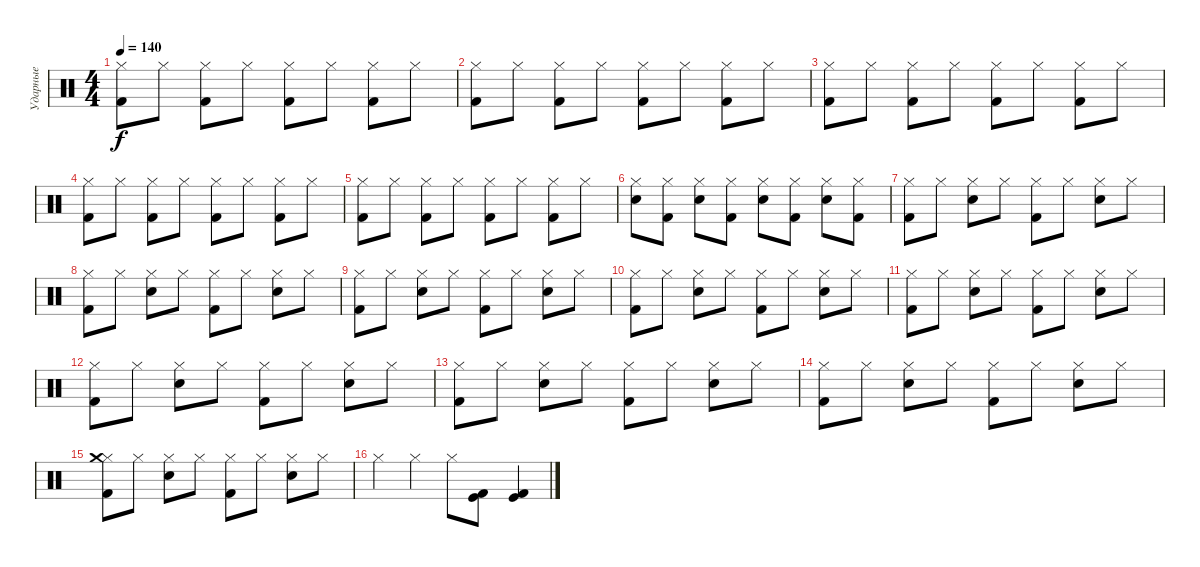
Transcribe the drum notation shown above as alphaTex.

\track ("Ударные" "Ударные") {instrument percussion}
\staff {score}
\articulation defaults
\ts (4 4)
\tempo 140
\clef neutral
\ks c
("Hi-Hat (closed)" "Kick (hit) 2").8{dy f} "Hi-Hat (closed)".8 ("Hi-Hat (closed)" "Kick (hit) 2").8 "Hi-Hat (closed)".8 ("Hi-Hat (closed)" "Kick (hit) 2").8 "Hi-Hat (closed)".8 ("Hi-Hat (closed)" "Kick (hit) 2").8 "Hi-Hat (closed)".8 |
("Hi-Hat (closed)" "Kick (hit) 2").8 "Hi-Hat (closed)".8 ("Hi-Hat (closed)" "Kick (hit) 2").8 "Hi-Hat (closed)".8 ("Hi-Hat (closed)" "Kick (hit) 2").8 "Hi-Hat (closed)".8 ("Hi-Hat (closed)" "Kick (hit) 2").8 "Hi-Hat (closed)".8 |
("Hi-Hat (closed)" "Kick (hit) 2").8 "Hi-Hat (closed)".8 ("Hi-Hat (closed)" "Kick (hit) 2").8 "Hi-Hat (closed)".8 ("Hi-Hat (closed)" "Kick (hit) 2").8 "Hi-Hat (closed)".8 ("Hi-Hat (closed)" "Kick (hit) 2").8 "Hi-Hat (closed)".8 |
("Hi-Hat (closed)" "Kick (hit) 2").8 "Hi-Hat (closed)".8 ("Hi-Hat (closed)" "Kick (hit) 2").8 "Hi-Hat (closed)".8 ("Hi-Hat (closed)" "Kick (hit) 2").8 "Hi-Hat (closed)".8 ("Hi-Hat (closed)" "Kick (hit) 2").8 "Hi-Hat (closed)".8 |
("Hi-Hat (closed)" "Kick (hit) 2").8 "Hi-Hat (closed)".8 ("Hi-Hat (closed)" "Kick (hit) 2").8 "Hi-Hat (closed)".8 ("Hi-Hat (closed)" "Kick (hit) 2").8 "Hi-Hat (closed)".8 ("Hi-Hat (closed)" "Kick (hit) 2").8 "Hi-Hat (closed)".8 |
("Hi-Hat (closed)" "Snare (hit) 2").8 ("Hi-Hat (closed)" "Kick (hit) 2").8 ("Hi-Hat (closed)" "Snare (hit) 2").8 ("Hi-Hat (closed)" "Kick (hit) 2").8 ("Hi-Hat (closed)" "Snare (hit) 2").8 ("Hi-Hat (closed)" "Kick (hit) 2").8 ("Hi-Hat (closed)" "Snare (hit) 2").8 ("Hi-Hat (closed)" "Kick (hit) 2").8 |
("Hi-Hat (closed)" "Kick (hit) 2").8 "Hi-Hat (closed)".8 ("Hi-Hat (closed)" "Snare (hit) 2").8 "Hi-Hat (closed)".8 ("Hi-Hat (closed)" "Kick (hit) 2").8 "Hi-Hat (closed)".8 ("Hi-Hat (closed)" "Snare (hit) 2").8 "Hi-Hat (closed)".8 |
("Hi-Hat (closed)" "Kick (hit) 2").8 "Hi-Hat (closed)".8 ("Hi-Hat (closed)" "Snare (hit) 2").8 "Hi-Hat (closed)".8 ("Hi-Hat (closed)" "Kick (hit) 2").8 "Hi-Hat (closed)".8 ("Hi-Hat (closed)" "Snare (hit) 2").8 "Hi-Hat (closed)".8 |
("Hi-Hat (closed)" "Kick (hit) 2").8 "Hi-Hat (closed)".8 ("Hi-Hat (closed)" "Snare (hit) 2").8 "Hi-Hat (closed)".8 ("Hi-Hat (closed)" "Kick (hit) 2").8 "Hi-Hat (closed)".8 ("Hi-Hat (closed)" "Snare (hit) 2").8 "Hi-Hat (closed)".8 |
("Hi-Hat (closed)" "Kick (hit) 2").8 "Hi-Hat (closed)".8 ("Hi-Hat (closed)" "Snare (hit) 2").8 "Hi-Hat (closed)".8 ("Hi-Hat (closed)" "Kick (hit) 2").8 "Hi-Hat (closed)".8 ("Hi-Hat (closed)" "Snare (hit) 2").8 "Hi-Hat (closed)".8 |
("Hi-Hat (closed)" "Kick (hit) 2").8 "Hi-Hat (closed)".8 ("Hi-Hat (closed)" "Snare (hit) 2").8 "Hi-Hat (closed)".8 ("Hi-Hat (closed)" "Kick (hit) 2").8 "Hi-Hat (closed)".8 ("Hi-Hat (closed)" "Snare (hit) 2").8 "Hi-Hat (closed)".8 |
("Hi-Hat (closed)" "Kick (hit) 2").8 "Hi-Hat (closed)".8 ("Hi-Hat (closed)" "Snare (hit) 2").8 "Hi-Hat (closed)".8 ("Hi-Hat (closed)" "Kick (hit) 2").8 "Hi-Hat (closed)".8 ("Hi-Hat (closed)" "Snare (hit) 2").8 "Hi-Hat (closed)".8 |
("Hi-Hat (closed)" "Kick (hit) 2").8 "Hi-Hat (closed)".8 ("Hi-Hat (closed)" "Snare (hit) 2").8 "Hi-Hat (closed)".8 ("Hi-Hat (closed)" "Kick (hit) 2").8 "Hi-Hat (closed)".8 ("Hi-Hat (closed)" "Snare (hit) 2").8 "Hi-Hat (closed)".8 |
("Hi-Hat (closed)" "Kick (hit) 2").8 "Hi-Hat (closed)".8 ("Hi-Hat (closed)" "Snare (hit) 2").8 "Hi-Hat (closed)".8 ("Hi-Hat (closed)" "Kick (hit) 2").8 "Hi-Hat (closed)".8 ("Hi-Hat (closed)" "Snare (hit) 2").8 "Hi-Hat (closed)".8 |
("Hi-Hat (closed)" "Kick (hit) 2" "Crash medium (hit)").8 "Hi-Hat (closed)".8 ("Hi-Hat (closed)" "Snare (hit) 2").8 "Hi-Hat (closed)".8 ("Hi-Hat (closed)" "Kick (hit) 2").8 "Hi-Hat (closed)".8 ("Hi-Hat (closed)" "Snare (hit) 2").8 "Hi-Hat (closed)".8 |
"Hi-Hat (closed)".4 "Hi-Hat (closed)".4 "Hi-Hat (closed)".8 ("Kick (hit)" "Kick (hit) 2").8 ("Kick (hit) 2" "Kick (hit)").4
